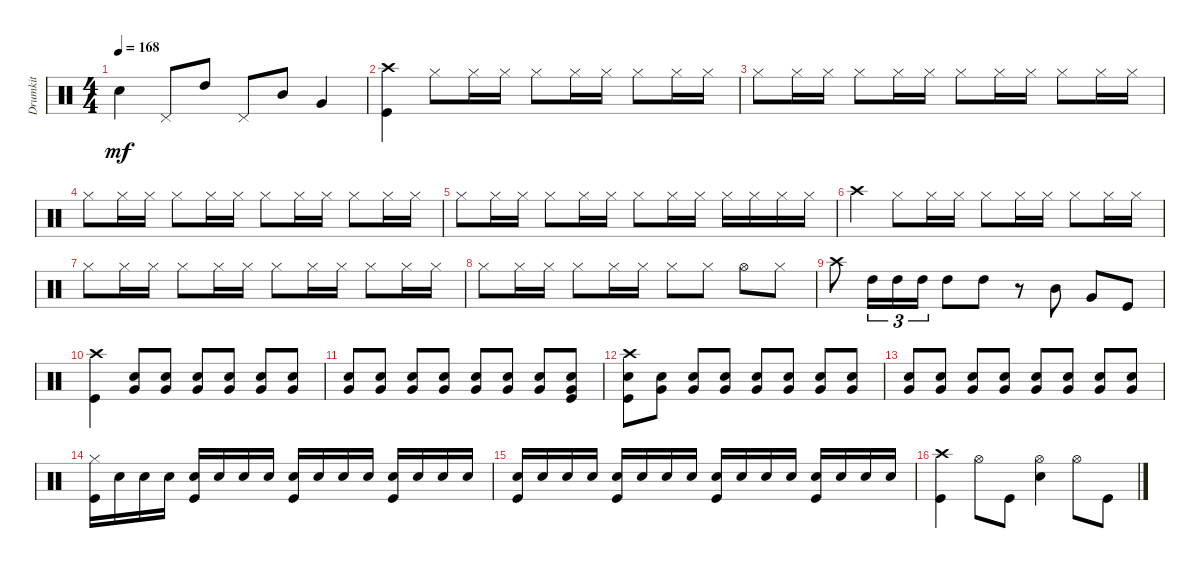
\track ("Drumkit" "Drumkit") {instrument percussion}
\staff {score}
\articulation defaults
\ts (4 4)
\tempo 168
\clef neutral
\ks c "Snare (hit) 2".4{dy mf} "Pedal Hi-Hat (hit)".8 "High Tom (hit)".8 "Pedal Hi-Hat (hit)".8 "Mid Tom (hit)".8 "Very Low Tom (hit)".4
|
("Kick (hit)" "Crash high (hit)").4 "Hi-Hat (closed)".8 "Hi-Hat (closed)".16 "Hi-Hat (closed)".16 "Hi-Hat (closed)".8 "Hi-Hat (closed)".16 "Hi-Hat (closed)".16 "Hi-Hat (closed)".8 "Hi-Hat (closed)".16 "Hi-Hat (closed)".16 |
"Hi-Hat (closed)".8 "Hi-Hat (closed)".16 "Hi-Hat (closed)".16 "Hi-Hat (closed)".8 "Hi-Hat (closed)".16 "Hi-Hat (closed)".16 "Hi-Hat (closed)".8 "Hi-Hat (closed)".16 "Hi-Hat (closed)".16 "Hi-Hat (closed)".8 "Hi-Hat (closed)".16 "Hi-Hat (closed)".16 |
"Hi-Hat (closed)".8 "Hi-Hat (closed)".16 "Hi-Hat (closed)".16 "Hi-Hat (closed)".8 "Hi-Hat (closed)".16 "Hi-Hat (closed)".16 "Hi-Hat (closed)".8 "Hi-Hat (closed)".16 "Hi-Hat (closed)".16 "Hi-Hat (closed)".8 "Hi-Hat (closed)".16 "Hi-Hat (closed)".16 |
"Hi-Hat (closed)".8 "Hi-Hat (closed)".16 "Hi-Hat (closed)".16 "Hi-Hat (closed)".8 "Hi-Hat (closed)".16 "Hi-Hat (closed)".16 "Hi-Hat (closed)".8 "Hi-Hat (closed)".16 "Hi-Hat (closed)".16 "Hi-Hat (closed)".16 "Hi-Hat (closed)".16 "Hi-Hat (closed)".16 "Hi-Hat (closed)".16 |
"Crash high (hit)".4 "Hi-Hat (closed)".8 "Hi-Hat (closed)".16 "Hi-Hat (closed)".16 "Hi-Hat (closed)".8 "Hi-Hat (closed)".16 "Hi-Hat (closed)".16 "Hi-Hat (closed)".8 "Hi-Hat (closed)".16 "Hi-Hat (closed)".16 |
"Hi-Hat (closed)".8 "Hi-Hat (closed)".16 "Hi-Hat (closed)".16 "Hi-Hat (closed)".8 "Hi-Hat (closed)".16 "Hi-Hat (closed)".16 "Hi-Hat (closed)".8 "Hi-Hat (closed)".16 "Hi-Hat (closed)".16 "Hi-Hat (closed)".8 "Hi-Hat (closed)".16 "Hi-Hat (closed)".16 |
"Hi-Hat (closed)".8 "Hi-Hat (closed)".16 "Hi-Hat (closed)".16 "Hi-Hat (closed)".8 "Hi-Hat (closed)".16 "Hi-Hat (closed)".16 "Hi-Hat (closed)".8 "Hi-Hat (closed)".8 "Hi-Hat (open)".8 "Hi-Hat (closed)".8 |
"Crash high (hit)".8 "High Tom (hit)".16{tu (3 2)} "High Tom (hit)".16{tu (3 2)} "High Tom (hit)".16{tu (3 2)} "High Tom (hit)".8 "High Tom (hit)".8 r.8 "Mid Tom (hit)".8 "Very Low Tom (hit)".8 "Kick (hit)".8 |
("Kick (hit)" "Crash high (hit)").4 ("Snare (hit) 2" "Very Low Tom (hit)").8 ("Very Low Tom (hit)" "Snare (hit) 2").8 ("Snare (hit) 2" "Very Low Tom (hit)").8 ("Very Low Tom (hit)" "Snare (hit) 2").8 ("Very Low Tom (hit)" "Snare (hit) 2").8 ("Very Low Tom (hit)" "Snare (hit) 2").8 |
("Snare (hit) 2" "Very Low Tom (hit)").8 ("Very Low Tom (hit)" "Snare (hit) 2").8 ("Very Low Tom (hit)" "Snare (hit) 2").8 ("Very Low Tom (hit)" "Snare (hit) 2").8 ("Snare (hit) 2" "Very Low Tom (hit)").8 ("Very Low Tom (hit)" "Snare (hit) 2").8 ("Very Low Tom (hit)" "Snare (hit) 2").8 ("Very Low Tom (hit)" "Snare (hit) 2" "Kick (hit)").8 |
("Kick (hit)" "Snare (hit) 2" "Crash high (hit)").8 ("Very Low Tom (hit)" "Snare (hit) 2").8 ("Snare (hit) 2" "Very Low Tom (hit)").8 ("Snare (hit) 2" "Very Low Tom (hit)").8 ("Snare (hit) 2" "Very Low Tom (hit)").8 ("Very Low Tom (hit)" "Snare (hit) 2").8 ("Very Low Tom (hit)" "Snare (hit) 2").8 ("Very Low Tom (hit)" "Snare (hit) 2").8 |
("Snare (hit) 2" "Very Low Tom (hit)").8 ("Very Low Tom (hit)" "Snare (hit) 2").8 ("Very Low Tom (hit)" "Snare (hit) 2").8 ("Very Low Tom (hit)" "Snare (hit) 2").8 ("Snare (hit) 2" "Very Low Tom (hit)").8 ("Very Low Tom (hit)" "Snare (hit) 2").8 ("Very Low Tom (hit)" "Snare (hit) 2").8 ("Very Low Tom (hit)" "Snare (hit) 2").8 |
("Kick (hit)" "Hi-Hat (closed)").16 "Snare (hit) 2".16 "Snare (hit) 2".16 "Snare (hit) 2".16 ("Snare (hit) 2" "Kick (hit)").16 "Snare (hit) 2".16 "Snare (hit) 2".16 "Snare (hit) 2".16 ("Snare (hit) 2" "Kick (hit)").16 "Snare (hit) 2".16 "Snare (hit) 2".16 "Snare (hit) 2".16 ("Snare (hit) 2" "Kick (hit)").16 "Snare (hit) 2".16 "Snare (hit) 2".16 "Snare (hit) 2".16 |
("Snare (hit) 2" "Kick (hit)").16 "Snare (hit) 2".16 "Snare (hit) 2".16 "Snare (hit) 2".16 ("Snare (hit) 2" "Kick (hit)").16 "Snare (hit) 2".16 "Snare (hit) 2".16 "Snare (hit) 2".16 ("Snare (hit) 2" "Kick (hit)").16 "Snare (hit) 2".16 "Snare (hit) 2".16 "Snare (hit) 2".16 ("Snare (hit) 2" "Kick (hit)").16 "Snare (hit) 2".16 "Snare (hit) 2".16 "Snare (hit) 2".16 |
("Kick (hit)" "Crash high (hit)").4 "Hi-Hat (open)".8 "Kick (hit)".8 ("Snare (hit) 2" "Hi-Hat (open)").4 "Hi-Hat (open)".8 "Kick (hit)".8
